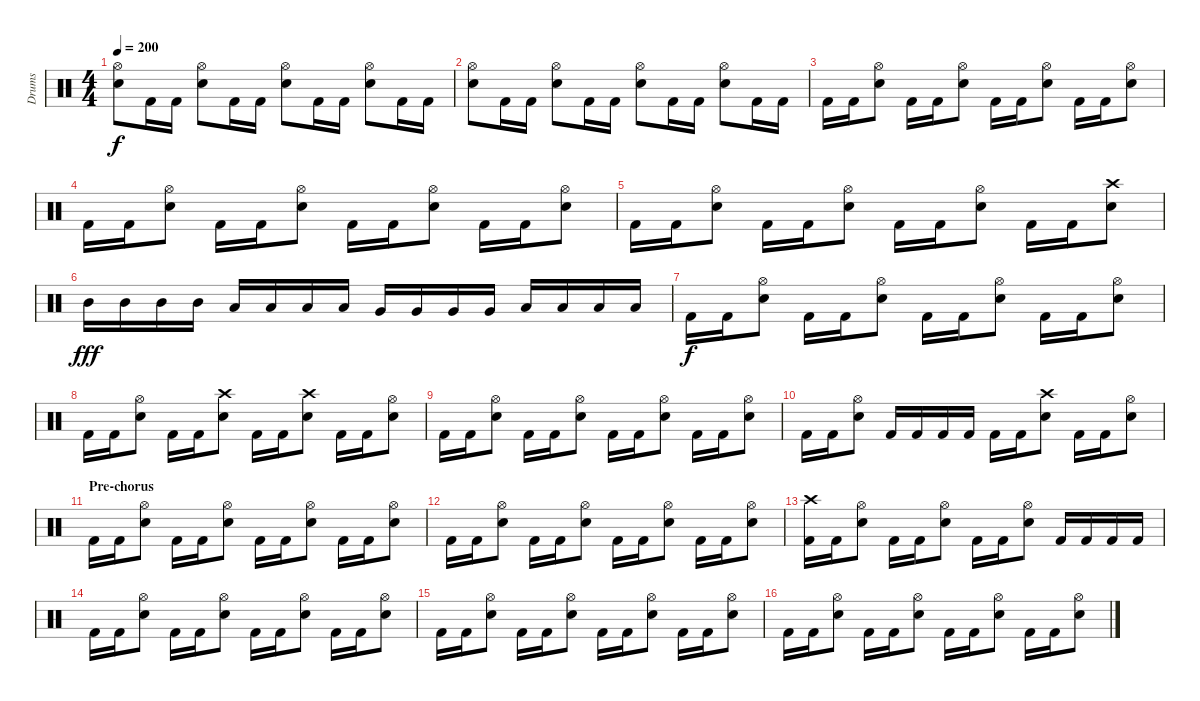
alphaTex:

\track ("Drums" "Drums") {instrument percussion}
\staff {score}
\articulation defaults
\ts (4 4)
\tempo 200
\clef neutral
\ks c
("Hi-Hat (open)" "Snare (hit) 2").8{dy f} "Kick (hit) 2".16 "Kick (hit) 2".16 ("Hi-Hat (open)" "Snare (hit) 2").8 "Kick (hit) 2".16 "Kick (hit) 2".16 ("Hi-Hat (open)" "Snare (hit) 2").8 "Kick (hit) 2".16 "Kick (hit) 2".16 ("Hi-Hat (open)" "Snare (hit) 2").8 "Kick (hit) 2".16 "Kick (hit) 2".16 |
("Hi-Hat (open)" "Snare (hit) 2").8 "Kick (hit) 2".16 "Kick (hit) 2".16 ("Hi-Hat (open)" "Snare (hit) 2").8 "Kick (hit) 2".16 "Kick (hit) 2".16 ("Hi-Hat (open)" "Snare (hit) 2").8 "Kick (hit) 2".16 "Kick (hit) 2".16 ("Hi-Hat (open)" "Snare (hit) 2").8 "Kick (hit) 2".16 "Kick (hit) 2".16 |
"Kick (hit) 2".16 "Kick (hit) 2".16 ("Hi-Hat (open)" "Snare (hit) 2").8 "Kick (hit) 2".16 "Kick (hit) 2".16 ("Hi-Hat (open)" "Snare (hit) 2").8 "Kick (hit) 2".16 "Kick (hit) 2".16 ("Hi-Hat (open)" "Snare (hit) 2").8 "Kick (hit) 2".16 "Kick (hit) 2".16 ("Hi-Hat (open)" "Snare (hit) 2").8 |
"Kick (hit) 2".16 "Kick (hit) 2".16 ("Hi-Hat (open)" "Snare (hit) 2").8 "Kick (hit) 2".16 "Kick (hit) 2".16 ("Hi-Hat (open)" "Snare (hit) 2").8 "Kick (hit) 2".16 "Kick (hit) 2".16 ("Hi-Hat (open)" "Snare (hit) 2").8 "Kick (hit) 2".16 "Kick (hit) 2".16 ("Hi-Hat (open)" "Snare (hit) 2").8 |
"Kick (hit) 2".16 "Kick (hit) 2".16 ("Hi-Hat (open)" "Snare (hit) 2").8 "Kick (hit) 2".16 "Kick (hit) 2".16 ("Hi-Hat (open)" "Snare (hit) 2").8 "Kick (hit) 2".16 "Kick (hit) 2".16 ("Hi-Hat (open)" "Snare (hit) 2").8 "Kick (hit) 2".16 "Kick (hit) 2".16 ("Crash high (hit)" "Snare (hit) 2").8 |
"Mid Tom (hit)".16{dy fff} "Mid Tom (hit)".16 "Mid Tom (hit)".16 "Mid Tom (hit)".16 "Low Tom (hit)".16 "Low Tom (hit)".16 "Low Tom (hit)".16 "Low Tom (hit)".16 "Very Low Tom (hit)".16 "Very Low Tom (hit)".16 "Very Low Tom (hit)".16 "Very Low Tom (hit)".16 "Low Floor Tom (hit)".16 "Low Floor Tom (hit)".16 "Low Floor Tom (hit)".16 "Low Floor Tom (hit)".16 |
"Kick (hit) 2".16{dy f} "Kick (hit) 2".16 ("Hi-Hat (open)" "Snare (hit) 2").8 "Kick (hit) 2".16 "Kick (hit) 2".16 ("Hi-Hat (open)" "Snare (hit) 2").8 "Kick (hit) 2".16 "Kick (hit) 2".16 ("Hi-Hat (open)" "Snare (hit) 2").8 "Kick (hit) 2".16 "Kick (hit) 2".16 ("Hi-Hat (open)" "Snare (hit) 2").8 |
"Kick (hit) 2".16 "Kick (hit) 2".16 ("Hi-Hat (open)" "Snare (hit) 2").8 "Kick (hit) 2".16 "Kick (hit) 2".16 ("Crash high (hit)" "Snare (hit) 2").8 "Kick (hit) 2".16 "Kick (hit) 2".16 ("Crash high (hit)" "Snare (hit) 2").8 "Kick (hit) 2".16 "Kick (hit) 2".16 ("Hi-Hat (open)" "Snare (hit) 2").8 |
"Kick (hit) 2".16 "Kick (hit) 2".16 ("Hi-Hat (open)" "Snare (hit) 2").8 "Kick (hit) 2".16 "Kick (hit) 2".16 ("Hi-Hat (open)" "Snare (hit) 2").8 "Kick (hit) 2".16 "Kick (hit) 2".16 ("Hi-Hat (open)" "Snare (hit) 2").8 "Kick (hit) 2".16 "Kick (hit) 2".16 ("Hi-Hat (open)" "Snare (hit) 2").8 |
"Kick (hit) 2".16 "Kick (hit) 2".16 ("Hi-Hat (open)" "Snare (hit) 2").8 "Kick (hit) 2".16 "Kick (hit) 2".16 "Kick (hit) 2".16 "Kick (hit) 2".16 "Kick (hit) 2".16 "Kick (hit) 2".16 ("Crash high (hit)" "Snare (hit) 2").8 "Kick (hit) 2".16 "Kick (hit) 2".16 ("Hi-Hat (open)" "Snare (hit) 2").8 |
\section ("" "Pre-chorus")
"Kick (hit) 2".16 "Kick (hit) 2".16 ("Hi-Hat (open)" "Snare (hit) 2").8 "Kick (hit) 2".16 "Kick (hit) 2".16 ("Hi-Hat (open)" "Snare (hit) 2").8 "Kick (hit) 2".16 "Kick (hit) 2".16 ("Hi-Hat (open)" "Snare (hit) 2").8 "Kick (hit) 2".16 "Kick (hit) 2".16 ("Hi-Hat (open)" "Snare (hit) 2").8 |
"Kick (hit) 2".16 "Kick (hit) 2".16 ("Hi-Hat (open)" "Snare (hit) 2").8 "Kick (hit) 2".16 "Kick (hit) 2".16 ("Hi-Hat (open)" "Snare (hit) 2").8 "Kick (hit) 2".16 "Kick (hit) 2".16 ("Hi-Hat (open)" "Snare (hit) 2").8 "Kick (hit) 2".16 "Kick (hit) 2".16 ("Hi-Hat (open)" "Snare (hit) 2").8 |
("Crash high (hit)" "Kick (hit) 2").16 "Kick (hit) 2".16 ("Hi-Hat (open)" "Snare (hit) 2").8 "Kick (hit) 2".16 "Kick (hit) 2".16 ("Hi-Hat (open)" "Snare (hit) 2").8 "Kick (hit) 2".16 "Kick (hit) 2".16 ("Hi-Hat (open)" "Snare (hit) 2").8 "Kick (hit) 2".16 "Kick (hit) 2".16 "Kick (hit) 2".16 "Kick (hit) 2".16 |
"Kick (hit) 2".16 "Kick (hit) 2".16 ("Hi-Hat (open)" "Snare (hit) 2").8 "Kick (hit) 2".16 "Kick (hit) 2".16 ("Hi-Hat (open)" "Snare (hit) 2").8 "Kick (hit) 2".16 "Kick (hit) 2".16 ("Hi-Hat (open)" "Snare (hit) 2").8 "Kick (hit) 2".16 "Kick (hit) 2".16 ("Hi-Hat (open)" "Snare (hit) 2").8 |
"Kick (hit) 2".16 "Kick (hit) 2".16 ("Hi-Hat (open)" "Snare (hit) 2").8 "Kick (hit) 2".16 "Kick (hit) 2".16 ("Hi-Hat (open)" "Snare (hit) 2").8 "Kick (hit) 2".16 "Kick (hit) 2".16 ("Hi-Hat (open)" "Snare (hit) 2").8 "Kick (hit) 2".16 "Kick (hit) 2".16 ("Hi-Hat (open)" "Snare (hit) 2").8 |
"Kick (hit) 2".16 "Kick (hit) 2".16 ("Hi-Hat (open)" "Snare (hit) 2").8 "Kick (hit) 2".16 "Kick (hit) 2".16 ("Hi-Hat (open)" "Snare (hit) 2").8 "Kick (hit) 2".16 "Kick (hit) 2".16 ("Hi-Hat (open)" "Snare (hit) 2").8 "Kick (hit) 2".16 "Kick (hit) 2".16 ("Hi-Hat (open)" "Snare (hit) 2").8
